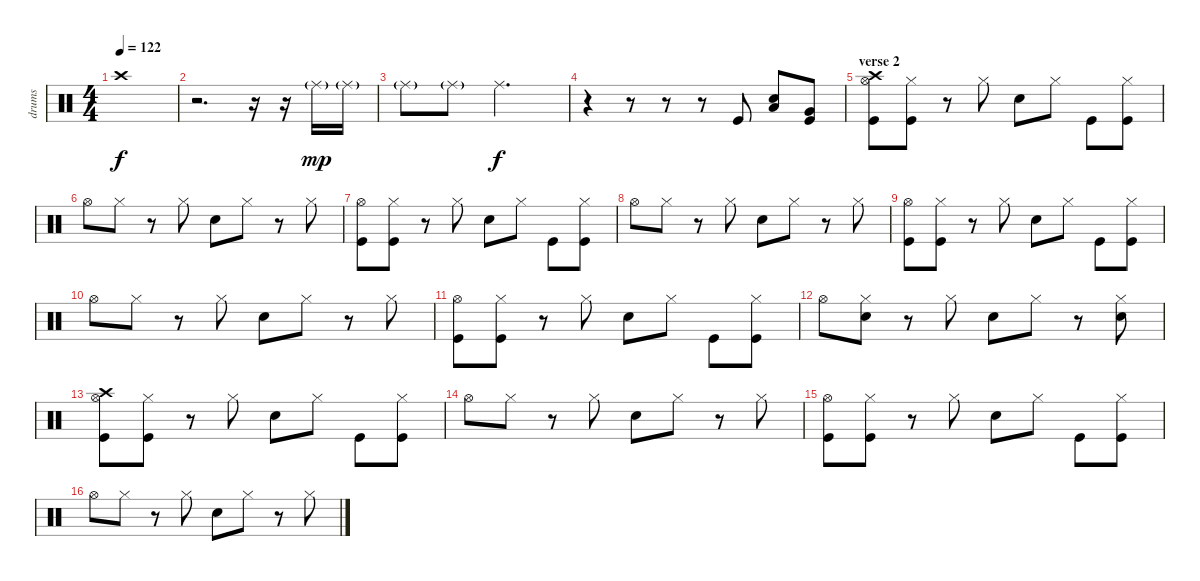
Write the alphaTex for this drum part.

\track ("drums" "drums") {instrument percussion}
\staff {score}
\articulation defaults
\ts (4 4)
\tempo 122
\clef neutral
\ks c "Crash high (hit)".1{dy f}
|
r.2{d} r.16 r.16 "Ride (middle)"{g}.16{dy mp} "Ride (middle)"{g}.16 |
"Ride (middle)"{g}.8 "Ride (middle)"{g}.8 "Ride (middle)".2{d dy f} |
r.4 r.8 r.8 r.8 "Kick (hit)".8 ("Low Tom (hit)" "Electric Snare (hit)").8 ("Very Low Tom (hit)" "Kick (hit)").8 |
\section ("" "verse 2")
("Crash high (hit)" "Hi-Hat (open)" "Kick (hit)").8 ("Hi-Hat (closed)" "Kick (hit)").8 r.8 "Hi-Hat (closed)".8 "Electric Snare (hit)".8 "Hi-Hat (closed)".8 "Kick (hit)".8 ("Hi-Hat (closed)" "Kick (hit)").8 |
"Hi-Hat (open)".8 "Hi-Hat (closed)".8 r.8 "Hi-Hat (closed)".8 "Electric Snare (hit)".8 "Hi-Hat (closed)".8 r.8 "Hi-Hat (closed)".8 |
("Hi-Hat (open)" "Kick (hit)").8 ("Hi-Hat (closed)" "Kick (hit)").8 r.8 "Hi-Hat (closed)".8 "Electric Snare (hit)".8 "Hi-Hat (closed)".8 "Kick (hit)".8 ("Hi-Hat (closed)" "Kick (hit)").8 |
"Hi-Hat (open)".8 "Hi-Hat (closed)".8 r.8 "Hi-Hat (closed)".8 "Electric Snare (hit)".8 "Hi-Hat (closed)".8 r.8 "Hi-Hat (closed)".8 |
("Hi-Hat (open)" "Kick (hit)").8 ("Hi-Hat (closed)" "Kick (hit)").8 r.8 "Hi-Hat (closed)".8 "Electric Snare (hit)".8 "Hi-Hat (closed)".8 "Kick (hit)".8 ("Hi-Hat (closed)" "Kick (hit)").8 |
"Hi-Hat (open)".8 "Hi-Hat (closed)".8 r.8 "Hi-Hat (closed)".8 "Electric Snare (hit)".8 "Hi-Hat (closed)".8 r.8 "Hi-Hat (closed)".8 |
("Hi-Hat (open)" "Kick (hit)").8 ("Hi-Hat (closed)" "Kick (hit)").8 r.8 "Hi-Hat (closed)".8 "Electric Snare (hit)".8 "Hi-Hat (closed)".8 "Kick (hit)".8 ("Hi-Hat (closed)" "Kick (hit)").8 |
"Hi-Hat (open)".8 ("Hi-Hat (closed)" "Electric Snare (hit)").8 r.8 "Hi-Hat (closed)".8 "Electric Snare (hit)".8 "Hi-Hat (closed)".8 r.8 ("Hi-Hat (closed)" "Electric Snare (hit)").8 |
("Crash high (hit)" "Hi-Hat (open)" "Kick (hit)").8 ("Hi-Hat (closed)" "Kick (hit)").8 r.8 "Hi-Hat (closed)".8 "Electric Snare (hit)".8 "Hi-Hat (closed)".8 "Kick (hit)".8 ("Hi-Hat (closed)" "Kick (hit)").8 |
"Hi-Hat (open)".8 "Hi-Hat (closed)".8 r.8 "Hi-Hat (closed)".8 "Electric Snare (hit)".8 "Hi-Hat (closed)".8 r.8 "Hi-Hat (closed)".8 |
("Hi-Hat (open)" "Kick (hit)").8 ("Hi-Hat (closed)" "Kick (hit)").8 r.8 "Hi-Hat (closed)".8 "Electric Snare (hit)".8 "Hi-Hat (closed)".8 "Kick (hit)".8 ("Hi-Hat (closed)" "Kick (hit)").8 |
"Hi-Hat (open)".8 "Hi-Hat (closed)".8 r.8 "Hi-Hat (closed)".8 "Electric Snare (hit)".8 "Hi-Hat (closed)".8 r.8 "Hi-Hat (closed)".8
